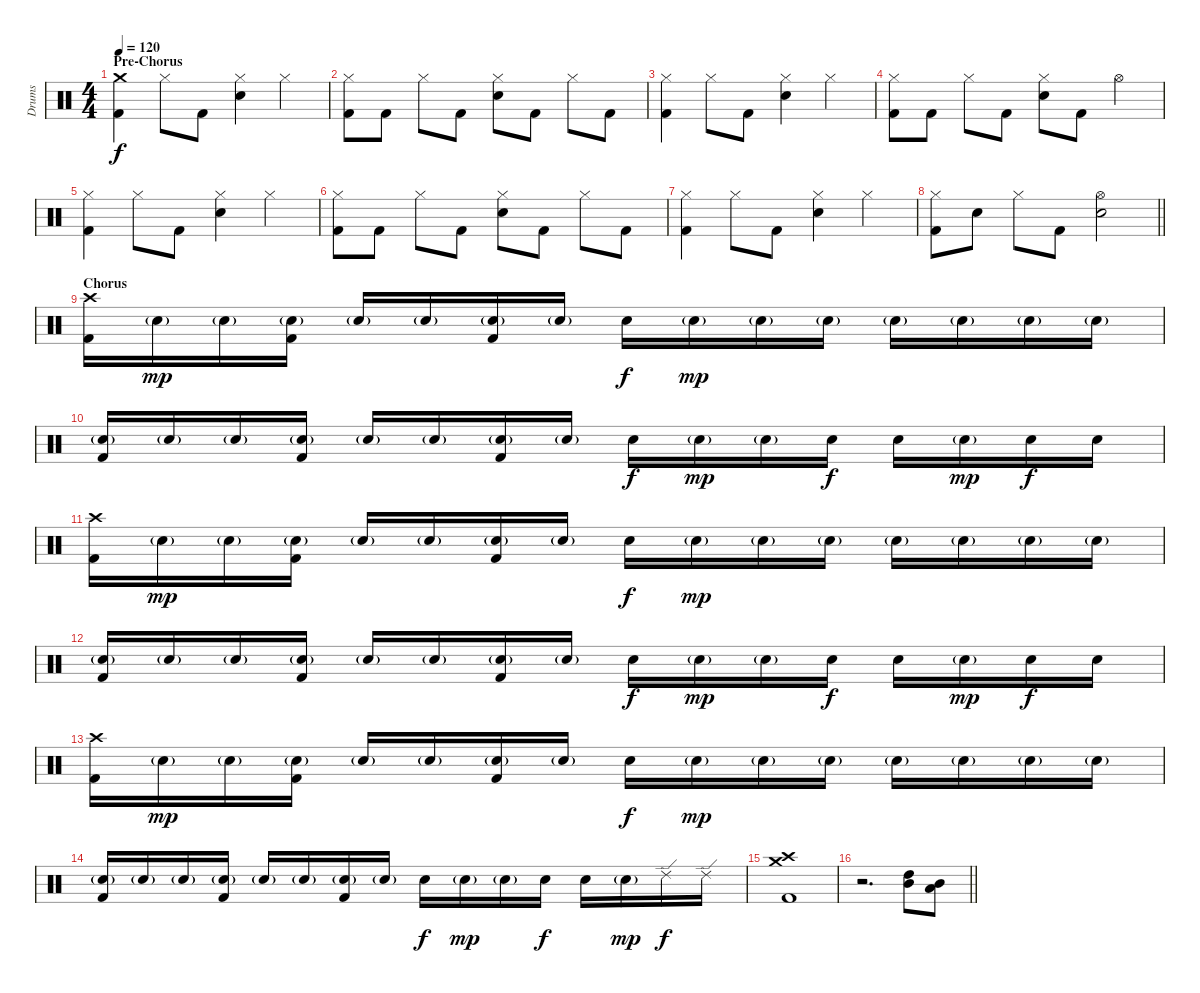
\track ("Drums" "Drums") {instrument percussion}
\staff {score}
\articulation defaults
\ts (4 4)
\section ("" "Pre-Chorus")
\tempo 120
\clef neutral
\ks c
("Crash medium (hit)" "Kick (hit) 2").4{dy f} "Hi-Hat (closed)".8 "Kick (hit) 2".8 ("Hi-Hat (closed)" "Electric Snare (hit)").4 "Hi-Hat (closed)".4 |
("Hi-Hat (closed)" "Kick (hit) 2").8 "Kick (hit) 2".8 "Hi-Hat (closed)".8 "Kick (hit) 2".8 ("Hi-Hat (closed)" "Electric Snare (hit)").8 "Kick (hit) 2".8 "Hi-Hat (closed)".8 "Kick (hit) 2".8 |
("Hi-Hat (closed)" "Kick (hit) 2").4 "Hi-Hat (closed)".8 "Kick (hit) 2".8 ("Hi-Hat (closed)" "Electric Snare (hit)").4 "Hi-Hat (closed)".4 |
("Hi-Hat (closed)" "Kick (hit) 2").8 "Kick (hit) 2".8 "Hi-Hat (closed)".8 "Kick (hit) 2".8 ("Hi-Hat (closed)" "Electric Snare (hit)").8 "Kick (hit) 2".8 "Hi-Hat (open)".4 |
("Hi-Hat (closed)" "Kick (hit) 2").4 "Hi-Hat (closed)".8 "Kick (hit) 2".8 ("Hi-Hat (closed)" "Electric Snare (hit)").4 "Hi-Hat (closed)".4 |
("Hi-Hat (closed)" "Kick (hit) 2").8 "Kick (hit) 2".8 "Hi-Hat (closed)".8 "Kick (hit) 2".8 ("Hi-Hat (closed)" "Electric Snare (hit)").8 "Kick (hit) 2".8 "Hi-Hat (closed)".8 "Kick (hit) 2".8 |
("Hi-Hat (closed)" "Kick (hit) 2").4 "Hi-Hat (closed)".8 "Kick (hit) 2".8 ("Hi-Hat (closed)" "Electric Snare (hit)").4 "Hi-Hat (closed)".4 |
\barLineRight lightlight
("Hi-Hat (closed)" "Kick (hit) 2").8 "Electric Snare (hit)".8 "Hi-Hat (closed)".8 "Kick (hit) 2".8 ("Hi-Hat (open)" "Electric Snare (hit)").2 |
\section ("" "Chorus")
("Crash high (hit)" "Kick (hit) 2").16 "Electric Snare (hit)"{g}.16{dy mp} "Electric Snare (hit)"{g}.16 ("Electric Snare (hit)"{g} "Kick (hit) 2").16 "Electric Snare (hit)"{g}.16 "Electric Snare (hit)"{g}.16 ("Electric Snare (hit)"{g} "Kick (hit) 2").16 "Electric Snare (hit)"{g}.16 "Electric Snare (hit)".16{dy f} "Electric Snare (hit)"{g}.16{dy mp} "Electric Snare (hit)"{g}.16 "Electric Snare (hit)"{g}.16 "Electric Snare (hit)"{g}.16 "Electric Snare (hit)"{g}.16 "Electric Snare (hit)"{g}.16 "Electric Snare (hit)"{g}.16 |
("Electric Snare (hit)"{g} "Kick (hit) 2").16 "Electric Snare (hit)"{g}.16 "Electric Snare (hit)"{g}.16 ("Electric Snare (hit)"{g} "Kick (hit) 2").16 "Electric Snare (hit)"{g}.16 "Electric Snare (hit)"{g}.16 ("Electric Snare (hit)"{g} "Kick (hit) 2").16 "Electric Snare (hit)"{g}.16 "Electric Snare (hit)".16{dy f} "Electric Snare (hit)"{g}.16{dy mp} "Electric Snare (hit)"{g}.16 "Electric Snare (hit)".16{dy f} "Electric Snare (hit)".16 "Electric Snare (hit)"{g}.16{dy mp} "Electric Snare (hit)".16{dy f} "Electric Snare (hit)".16 |
("Crash high (hit)" "Kick (hit) 2").16 "Electric Snare (hit)"{g}.16{dy mp} "Electric Snare (hit)"{g}.16 ("Electric Snare (hit)"{g} "Kick (hit) 2").16 "Electric Snare (hit)"{g}.16 "Electric Snare (hit)"{g}.16 ("Electric Snare (hit)"{g} "Kick (hit) 2").16 "Electric Snare (hit)"{g}.16 "Electric Snare (hit)".16{dy f} "Electric Snare (hit)"{g}.16{dy mp} "Electric Snare (hit)"{g}.16 "Electric Snare (hit)"{g}.16 "Electric Snare (hit)"{g}.16 "Electric Snare (hit)"{g}.16 "Electric Snare (hit)"{g}.16 "Electric Snare (hit)"{g}.16 |
("Electric Snare (hit)"{g} "Kick (hit) 2").16 "Electric Snare (hit)"{g}.16 "Electric Snare (hit)"{g}.16 ("Electric Snare (hit)"{g} "Kick (hit) 2").16 "Electric Snare (hit)"{g}.16 "Electric Snare (hit)"{g}.16 ("Electric Snare (hit)"{g} "Kick (hit) 2").16 "Electric Snare (hit)"{g}.16 "Electric Snare (hit)".16{dy f} "Electric Snare (hit)"{g}.16{dy mp} "Electric Snare (hit)"{g}.16 "Electric Snare (hit)".16{dy f} "Electric Snare (hit)".16 "Electric Snare (hit)"{g}.16{dy mp} "Electric Snare (hit)".16{dy f} "Electric Snare (hit)".16 |
("Crash high (hit)" "Kick (hit) 2").16 "Electric Snare (hit)"{g}.16{dy mp} "Electric Snare (hit)"{g}.16 ("Electric Snare (hit)"{g} "Kick (hit) 2").16 "Electric Snare (hit)"{g}.16 "Electric Snare (hit)"{g}.16 ("Electric Snare (hit)"{g} "Kick (hit) 2").16 "Electric Snare (hit)"{g}.16 "Electric Snare (hit)".16{dy f} "Electric Snare (hit)"{g}.16{dy mp} "Electric Snare (hit)"{g}.16 "Electric Snare (hit)"{g}.16 "Electric Snare (hit)"{g}.16 "Electric Snare (hit)"{g}.16 "Electric Snare (hit)"{g}.16 "Electric Snare (hit)"{g}.16 |
("Electric Snare (hit)"{g} "Kick (hit) 2").16 "Electric Snare (hit)"{g}.16 "Electric Snare (hit)"{g}.16 ("Electric Snare (hit)"{g} "Kick (hit) 2").16 "Electric Snare (hit)"{g}.16 "Electric Snare (hit)"{g}.16 ("Electric Snare (hit)"{g} "Kick (hit) 2").16 "Electric Snare (hit)"{g}.16 "Electric Snare (hit)".16{dy f} "Electric Snare (hit)"{g}.16{dy mp} "Electric Snare (hit)"{g}.16 "Electric Snare (hit)".16{dy f} "Electric Snare (hit)".16 "Electric Snare (hit)"{g}.16{dy mp} "Ride (edge) 2".16{dy f} "Ride (edge) 2".16 |
("Crash medium (hit)" "Crash high (hit)" "Kick (hit) 2").1 |
\barLineRight lightlight
r.2{d} ("High Tom (hit)" "Mid Tom (hit)").8{bd 60} ("Mid Tom (hit)" "Low Tom (hit)").8{bd 60}
